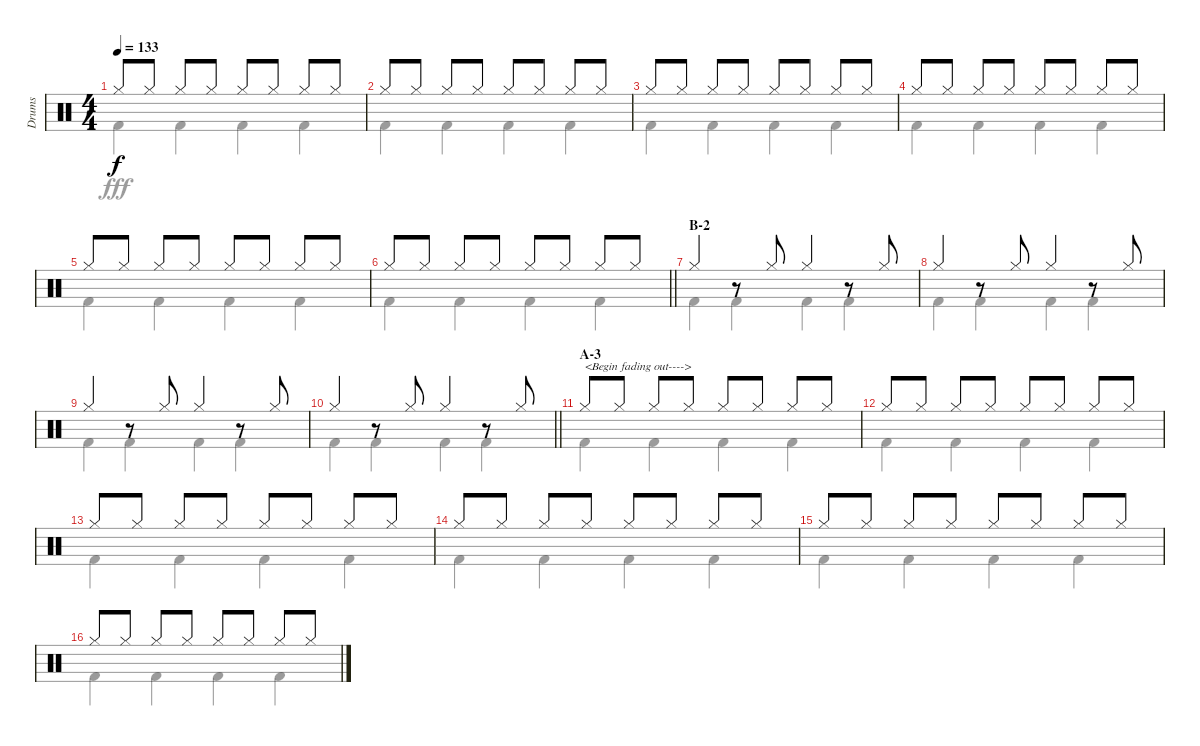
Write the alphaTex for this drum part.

\track ("Drums" "Drums") {instrument percussion}
\staff {score}
\articulation defaults
\voice
\ts (4 4)
\tempo 133
\clef neutral
\ks c "Hi-Hat (closed)".8{dy f} "Hi-Hat (closed)".8 "Hi-Hat (closed)".8 "Hi-Hat (closed)".8 "Hi-Hat (closed)".8 "Hi-Hat (closed)".8 "Hi-Hat (closed)".8 "Hi-Hat (closed)".8
|
"Hi-Hat (closed)".8 "Hi-Hat (closed)".8 "Hi-Hat (closed)".8 "Hi-Hat (closed)".8 "Hi-Hat (closed)".8 "Hi-Hat (closed)".8 "Hi-Hat (closed)".8 "Hi-Hat (closed)".8 |
"Hi-Hat (closed)".8 "Hi-Hat (closed)".8 "Hi-Hat (closed)".8 "Hi-Hat (closed)".8 "Hi-Hat (closed)".8 "Hi-Hat (closed)".8 "Hi-Hat (closed)".8 "Hi-Hat (closed)".8 |
"Hi-Hat (closed)".8 "Hi-Hat (closed)".8 "Hi-Hat (closed)".8 "Hi-Hat (closed)".8 "Hi-Hat (closed)".8 "Hi-Hat (closed)".8 "Hi-Hat (closed)".8 "Hi-Hat (closed)".8 |
"Hi-Hat (closed)".8 "Hi-Hat (closed)".8 "Hi-Hat (closed)".8 "Hi-Hat (closed)".8 "Hi-Hat (closed)".8 "Hi-Hat (closed)".8 "Hi-Hat (closed)".8 "Hi-Hat (closed)".8 |
\barLineRight lightlight "Hi-Hat (closed)".8 "Hi-Hat (closed)".8 "Hi-Hat (closed)".8 "Hi-Hat (closed)".8 "Hi-Hat (closed)".8 "Hi-Hat (closed)".8 "Hi-Hat (closed)".8 "Hi-Hat (closed)".8
|
\section ("" "B-2")
"Hi-Hat (closed)".4 r.8 "Hi-Hat (closed)".8 "Hi-Hat (closed)".4 r.8 "Hi-Hat (closed)".8 |
"Hi-Hat (closed)".4 r.8 "Hi-Hat (closed)".8 "Hi-Hat (closed)".4 r.8 "Hi-Hat (closed)".8 |
"Hi-Hat (closed)".4 r.8 "Hi-Hat (closed)".8 "Hi-Hat (closed)".4 r.8 "Hi-Hat (closed)".8 |
\barLineRight lightlight "Hi-Hat (closed)".4
r.8 "Hi-Hat (closed)".8 "Hi-Hat (closed)".4 r.8 "Hi-Hat (closed)".8 |
\section ("" "A-3")
"Hi-Hat (closed)".8{txt "<Begin fading out---->"} "Hi-Hat (closed)".8 "Hi-Hat (closed)".8 "Hi-Hat (closed)".8 "Hi-Hat (closed)".8 "Hi-Hat (closed)".8 "Hi-Hat (closed)".8 "Hi-Hat (closed)".8 |
"Hi-Hat (closed)".8 "Hi-Hat (closed)".8 "Hi-Hat (closed)".8 "Hi-Hat (closed)".8 "Hi-Hat (closed)".8 "Hi-Hat (closed)".8 "Hi-Hat (closed)".8 "Hi-Hat (closed)".8 |
"Hi-Hat (closed)".8 "Hi-Hat (closed)".8 "Hi-Hat (closed)".8 "Hi-Hat (closed)".8 "Hi-Hat (closed)".8 "Hi-Hat (closed)".8 "Hi-Hat (closed)".8 "Hi-Hat (closed)".8 |
"Hi-Hat (closed)".8 "Hi-Hat (closed)".8 "Hi-Hat (closed)".8 "Hi-Hat (closed)".8 "Hi-Hat (closed)".8 "Hi-Hat (closed)".8 "Hi-Hat (closed)".8 "Hi-Hat (closed)".8 |
"Hi-Hat (closed)".8 "Hi-Hat (closed)".8 "Hi-Hat (closed)".8 "Hi-Hat (closed)".8 "Hi-Hat (closed)".8 "Hi-Hat (closed)".8 "Hi-Hat (closed)".8 "Hi-Hat (closed)".8 |
"Hi-Hat (closed)".8 "Hi-Hat (closed)".8 "Hi-Hat (closed)".8 "Hi-Hat (closed)".8 "Hi-Hat (closed)".8 "Hi-Hat (closed)".8 "Hi-Hat (closed)".8 "Hi-Hat (closed)".8
\voice
\clef neutral
\ottava regular
\simile none
\ks c "Kick (hit) 2".4{dy fff} "Kick (hit) 2".4 "Kick (hit) 2".4 "Kick (hit) 2".4
|
"Kick (hit) 2".4 "Kick (hit) 2".4 "Kick (hit) 2".4 "Kick (hit) 2".4 |
"Kick (hit) 2".4 "Kick (hit) 2".4 "Kick (hit) 2".4 "Kick (hit) 2".4 |
"Kick (hit) 2".4 "Kick (hit) 2".4 "Kick (hit) 2".4 "Kick (hit) 2".4 |
"Kick (hit) 2".4 "Kick (hit) 2".4 "Kick (hit) 2".4 "Kick (hit) 2".4 |
\barLineRight lightlight "Kick (hit) 2".4 "Kick (hit) 2".4 "Kick (hit) 2".4 "Kick (hit) 2".4
|
"Kick (hit) 2".4 "Kick (hit) 2".4 "Kick (hit) 2".4 "Kick (hit) 2".4 |
"Kick (hit) 2".4 "Kick (hit) 2".4 "Kick (hit) 2".4 "Kick (hit) 2".4 |
"Kick (hit) 2".4 "Kick (hit) 2".4 "Kick (hit) 2".4 "Kick (hit) 2".4 |
\barLineRight lightlight "Kick (hit) 2".4 "Kick (hit) 2".4 "Kick (hit) 2".4 "Kick (hit) 2".4
|
"Kick (hit) 2".4 "Kick (hit) 2".4 "Kick (hit) 2".4 "Kick (hit) 2".4 |
"Kick (hit) 2".4 "Kick (hit) 2".4 "Kick (hit) 2".4 "Kick (hit) 2".4 |
"Kick (hit) 2".4 "Kick (hit) 2".4 "Kick (hit) 2".4 "Kick (hit) 2".4 |
"Kick (hit) 2".4 "Kick (hit) 2".4 "Kick (hit) 2".4 "Kick (hit) 2".4 |
"Kick (hit) 2".4 "Kick (hit) 2".4 "Kick (hit) 2".4 "Kick (hit) 2".4 |
"Kick (hit) 2".4 "Kick (hit) 2".4 "Kick (hit) 2".4 "Kick (hit) 2".4
